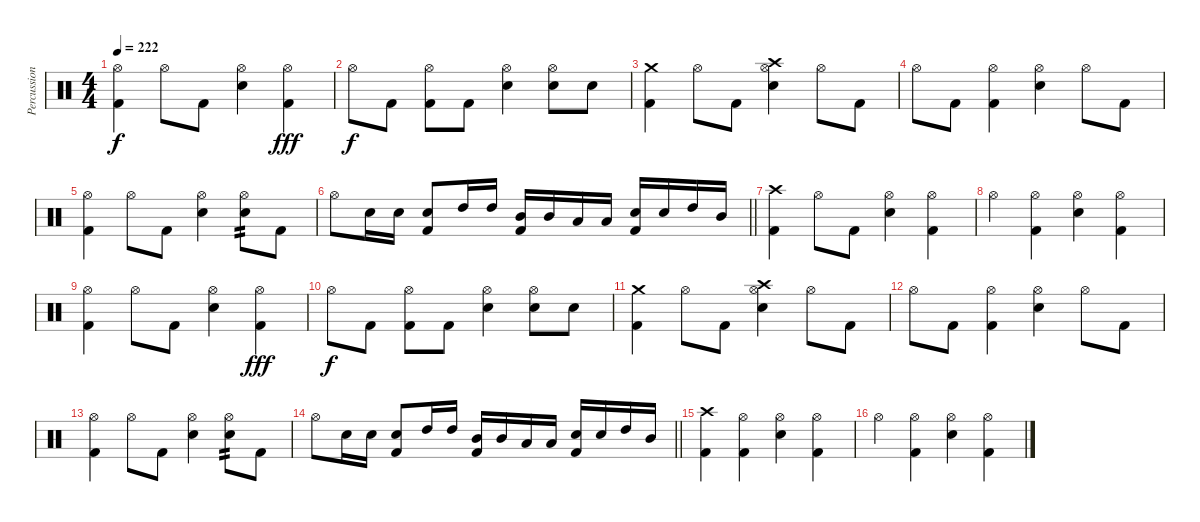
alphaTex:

\track ("Percussions" "Percussion") {instrument percussion}
\staff {score}
\articulation defaults
\ts (4 4)
\tempo 222
\clef neutral
\ks c
("Hi-Hat (open)" "Kick (hit) 2").4{dy f} "Hi-Hat (open)".8 "Kick (hit) 2".8 ("Hi-Hat (open)" "Electric Snare (hit)").4 ("Hi-Hat (open)" "Kick (hit) 2").4{dy fff} |
"Hi-Hat (open)".8{dy f} "Kick (hit) 2".8 ("Hi-Hat (open)" "Kick (hit) 2").8 "Kick (hit) 2".8 ("Hi-Hat (open)" "Electric Snare (hit)").4 ("Hi-Hat (open)" "Electric Snare (hit)").8 "Electric Snare (hit)".8 |
("Crash medium (hit)" "Kick (hit) 2").4 "Hi-Hat (open)".8 "Kick (hit) 2".8 ("Crash high (hit)" "Hi-Hat (open)" "Electric Snare (hit)").4 "Hi-Hat (open)".8 "Kick (hit) 2".8 |
"Hi-Hat (open)".8 "Kick (hit) 2".8 ("Hi-Hat (open)" "Kick (hit) 2").4 ("Hi-Hat (open)" "Electric Snare (hit)").4 "Hi-Hat (open)".8 "Kick (hit) 2".8 |
("Hi-Hat (open)" "Kick (hit) 2").4 "Hi-Hat (open)".8 "Kick (hit) 2".8 ("Hi-Hat (open)" "Electric Snare (hit)").4 ("Hi-Hat (open)" "Electric Snare (hit)").8{tp 2} "Kick (hit) 2".8 |
\barLineRight lightlight "Hi-Hat (open)".8 "Electric Snare (hit)".16 "Electric Snare (hit)".16
("Electric Snare (hit)" "Kick (hit) 2").8 "High Tom (hit)".16 "High Tom (hit)".16 ("Mid Tom (hit)" "Kick (hit) 2").16 "Mid Tom (hit)".16 "Low Tom (hit)".16 "Low Tom (hit)".16 ("Electric Snare (hit)" "Kick (hit) 2").16 "Electric Snare (hit)".16 "High Tom (hit)".16 "Mid Tom (hit)".16 |
("Crash high (hit)" "Kick (hit) 2").4 "Hi-Hat (open)".8 "Kick (hit) 2".8 ("Hi-Hat (open)" "Electric Snare (hit)").4 ("Hi-Hat (open)" "Kick (hit) 2").4 |
"Hi-Hat (open)".4 ("Hi-Hat (open)" "Kick (hit) 2").4 ("Hi-Hat (open)" "Electric Snare (hit)").4 ("Hi-Hat (open)" "Kick (hit) 2").4 |
("Hi-Hat (open)" "Kick (hit) 2").4 "Hi-Hat (open)".8 "Kick (hit) 2".8 ("Hi-Hat (open)" "Electric Snare (hit)").4 ("Hi-Hat (open)" "Kick (hit) 2").4{dy fff} |
"Hi-Hat (open)".8{dy f} "Kick (hit) 2".8 ("Hi-Hat (open)" "Kick (hit) 2").8 "Kick (hit) 2".8 ("Hi-Hat (open)" "Electric Snare (hit)").4 ("Hi-Hat (open)" "Electric Snare (hit)").8 "Electric Snare (hit)".8 |
("Crash medium (hit)" "Kick (hit) 2").4 "Hi-Hat (open)".8 "Kick (hit) 2".8 ("Crash high (hit)" "Hi-Hat (open)" "Electric Snare (hit)").4 "Hi-Hat (open)".8 "Kick (hit) 2".8 |
"Hi-Hat (open)".8 "Kick (hit) 2".8 ("Hi-Hat (open)" "Kick (hit) 2").4 ("Hi-Hat (open)" "Electric Snare (hit)").4 "Hi-Hat (open)".8 "Kick (hit) 2".8 |
("Hi-Hat (open)" "Kick (hit) 2").4 "Hi-Hat (open)".8 "Kick (hit) 2".8 ("Hi-Hat (open)" "Electric Snare (hit)").4 ("Hi-Hat (open)" "Electric Snare (hit)").8{tp 2} "Kick (hit) 2".8 |
\barLineRight lightlight "Hi-Hat (open)".8 "Electric Snare (hit)".16 "Electric Snare (hit)".16
("Electric Snare (hit)" "Kick (hit) 2").8 "High Tom (hit)".16 "High Tom (hit)".16 ("Mid Tom (hit)" "Kick (hit) 2").16 "Mid Tom (hit)".16 "Low Tom (hit)".16 "Low Tom (hit)".16 ("Electric Snare (hit)" "Kick (hit) 2").16 "Electric Snare (hit)".16 "High Tom (hit)".16 "Mid Tom (hit)".16 |
("Crash high (hit)" "Kick (hit) 2").4 ("Hi-Hat (open)" "Kick (hit) 2").4 ("Hi-Hat (open)" "Electric Snare (hit)").4 ("Hi-Hat (open)" "Kick (hit) 2").4 |
"Hi-Hat (open)".4 ("Hi-Hat (open)" "Kick (hit) 2").4 ("Hi-Hat (open)" "Electric Snare (hit)").4 ("Hi-Hat (open)" "Kick (hit) 2").4
